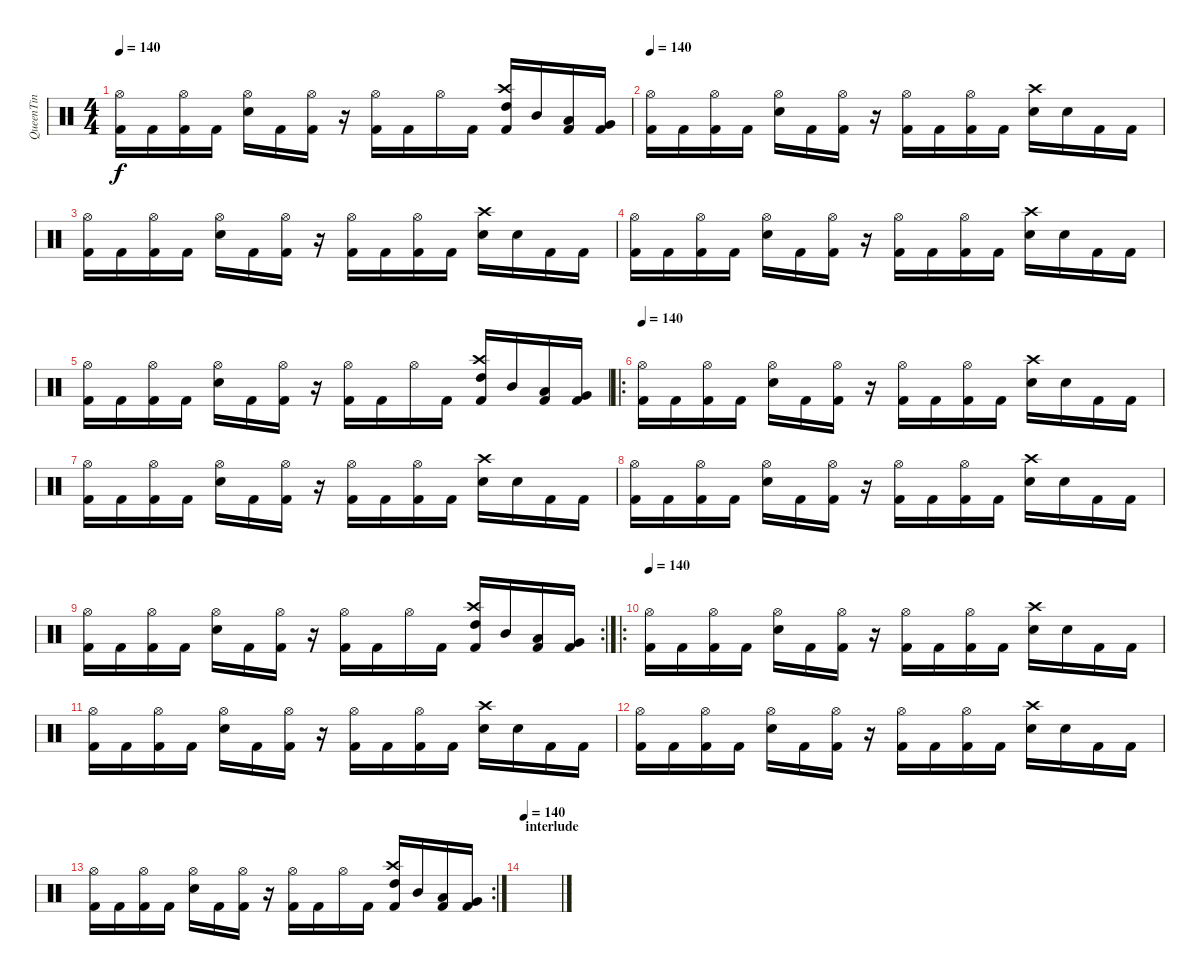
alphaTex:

\track ("QueenTin" "QueenTin") {instrument percussion}
\staff {score}
\articulation defaults
\ts (4 4)
\tempo 140
\clef neutral
\ks c
("Hi-Hat (open)" "Kick (hit) 2").16{dy f} "Kick (hit) 2".16 ("Hi-Hat (open)" "Kick (hit) 2").16 "Kick (hit) 2".16 ("Hi-Hat (open)" "Snare (hit) 2").16 "Kick (hit) 2".16 ("Hi-Hat (open)" "Kick (hit) 2").16 r.16 ("Hi-Hat (open)" "Kick (hit) 2").16 "Kick (hit) 2".16 "Hi-Hat (open)".16 "Kick (hit) 2".16 ("Crash high (hit)" "High Tom (hit)" "Kick (hit) 2").16 "Mid Tom (hit)".16 ("Low Tom (hit)" "Kick (hit) 2").16 ("Very Low Tom (hit)" "Kick (hit) 2").16 |
\tempo 140
("Hi-Hat (open)" "Kick (hit) 2").16 "Kick (hit) 2".16 ("Hi-Hat (open)" "Kick (hit) 2").16 "Kick (hit) 2".16 ("Hi-Hat (open)" "Snare (hit) 2").16 "Kick (hit) 2".16 ("Hi-Hat (open)" "Kick (hit) 2").16 r.16 ("Hi-Hat (open)" "Kick (hit) 2").16 "Kick (hit) 2".16 ("Hi-Hat (open)" "Kick (hit) 2").16 "Kick (hit) 2".16 ("Crash high (hit)" "Snare (hit) 2").16 "Snare (hit) 2".16 "Kick (hit) 2".16 "Kick (hit) 2".16 |
("Hi-Hat (open)" "Kick (hit) 2").16 "Kick (hit) 2".16 ("Hi-Hat (open)" "Kick (hit) 2").16 "Kick (hit) 2".16 ("Hi-Hat (open)" "Snare (hit) 2").16 "Kick (hit) 2".16 ("Hi-Hat (open)" "Kick (hit) 2").16 r.16 ("Hi-Hat (open)" "Kick (hit) 2").16 "Kick (hit) 2".16 ("Hi-Hat (open)" "Kick (hit) 2").16 "Kick (hit) 2".16 ("Crash high (hit)" "Snare (hit) 2").16 "Snare (hit) 2".16 "Kick (hit) 2".16 "Kick (hit) 2".16 |
("Hi-Hat (open)" "Kick (hit) 2").16 "Kick (hit) 2".16 ("Hi-Hat (open)" "Kick (hit) 2").16 "Kick (hit) 2".16 ("Hi-Hat (open)" "Snare (hit) 2").16 "Kick (hit) 2".16 ("Hi-Hat (open)" "Kick (hit) 2").16 r.16 ("Hi-Hat (open)" "Kick (hit) 2").16 "Kick (hit) 2".16 ("Hi-Hat (open)" "Kick (hit) 2").16 "Kick (hit) 2".16 ("Crash high (hit)" "Snare (hit) 2").16 "Snare (hit) 2".16 "Kick (hit) 2".16 "Kick (hit) 2".16 |
("Hi-Hat (open)" "Kick (hit) 2").16 "Kick (hit) 2".16 ("Hi-Hat (open)" "Kick (hit) 2").16 "Kick (hit) 2".16 ("Hi-Hat (open)" "Snare (hit) 2").16 "Kick (hit) 2".16 ("Hi-Hat (open)" "Kick (hit) 2").16 r.16 ("Hi-Hat (open)" "Kick (hit) 2").16 "Kick (hit) 2".16 "Hi-Hat (open)".16 "Kick (hit) 2".16 ("Crash high (hit)" "High Tom (hit)" "Kick (hit) 2").16 "Mid Tom (hit)".16 ("Low Tom (hit)" "Kick (hit) 2").16 ("Very Low Tom (hit)" "Kick (hit) 2").16 |
\ro
\tempo 140
("Hi-Hat (open)" "Kick (hit) 2").16 "Kick (hit) 2".16 ("Hi-Hat (open)" "Kick (hit) 2").16 "Kick (hit) 2".16 ("Hi-Hat (open)" "Snare (hit) 2").16 "Kick (hit) 2".16 ("Hi-Hat (open)" "Kick (hit) 2").16 r.16 ("Hi-Hat (open)" "Kick (hit) 2").16 "Kick (hit) 2".16 ("Hi-Hat (open)" "Kick (hit) 2").16 "Kick (hit) 2".16 ("Crash high (hit)" "Snare (hit) 2").16 "Snare (hit) 2".16 "Kick (hit) 2".16 "Kick (hit) 2".16 |
("Hi-Hat (open)" "Kick (hit) 2").16 "Kick (hit) 2".16 ("Hi-Hat (open)" "Kick (hit) 2").16 "Kick (hit) 2".16 ("Hi-Hat (open)" "Snare (hit) 2").16 "Kick (hit) 2".16 ("Hi-Hat (open)" "Kick (hit) 2").16 r.16 ("Hi-Hat (open)" "Kick (hit) 2").16 "Kick (hit) 2".16 ("Hi-Hat (open)" "Kick (hit) 2").16 "Kick (hit) 2".16 ("Crash high (hit)" "Snare (hit) 2").16 "Snare (hit) 2".16 "Kick (hit) 2".16 "Kick (hit) 2".16 |
("Hi-Hat (open)" "Kick (hit) 2").16 "Kick (hit) 2".16 ("Hi-Hat (open)" "Kick (hit) 2").16 "Kick (hit) 2".16 ("Hi-Hat (open)" "Snare (hit) 2").16 "Kick (hit) 2".16 ("Hi-Hat (open)" "Kick (hit) 2").16 r.16 ("Hi-Hat (open)" "Kick (hit) 2").16 "Kick (hit) 2".16 ("Hi-Hat (open)" "Kick (hit) 2").16 "Kick (hit) 2".16 ("Crash high (hit)" "Snare (hit) 2").16 "Snare (hit) 2".16 "Kick (hit) 2".16 "Kick (hit) 2".16 |
\rc 2
("Hi-Hat (open)" "Kick (hit) 2").16 "Kick (hit) 2".16 ("Hi-Hat (open)" "Kick (hit) 2").16 "Kick (hit) 2".16 ("Hi-Hat (open)" "Snare (hit) 2").16 "Kick (hit) 2".16 ("Hi-Hat (open)" "Kick (hit) 2").16 r.16 ("Hi-Hat (open)" "Kick (hit) 2").16 "Kick (hit) 2".16 "Hi-Hat (open)".16 "Kick (hit) 2".16 ("Crash high (hit)" "High Tom (hit)" "Kick (hit) 2").16 "Mid Tom (hit)".16 ("Low Tom (hit)" "Kick (hit) 2").16 ("Very Low Tom (hit)" "Kick (hit) 2").16 |
\ro
\tempo 140
("Hi-Hat (open)" "Kick (hit) 2").16 "Kick (hit) 2".16 ("Hi-Hat (open)" "Kick (hit) 2").16 "Kick (hit) 2".16 ("Hi-Hat (open)" "Snare (hit) 2").16 "Kick (hit) 2".16 ("Hi-Hat (open)" "Kick (hit) 2").16 r.16 ("Hi-Hat (open)" "Kick (hit) 2").16 "Kick (hit) 2".16 ("Hi-Hat (open)" "Kick (hit) 2").16 "Kick (hit) 2".16 ("Crash high (hit)" "Snare (hit) 2").16 "Snare (hit) 2".16 "Kick (hit) 2".16 "Kick (hit) 2".16 |
("Hi-Hat (open)" "Kick (hit) 2").16 "Kick (hit) 2".16 ("Hi-Hat (open)" "Kick (hit) 2").16 "Kick (hit) 2".16 ("Hi-Hat (open)" "Snare (hit) 2").16 "Kick (hit) 2".16 ("Hi-Hat (open)" "Kick (hit) 2").16 r.16 ("Hi-Hat (open)" "Kick (hit) 2").16 "Kick (hit) 2".16 ("Hi-Hat (open)" "Kick (hit) 2").16 "Kick (hit) 2".16 ("Crash high (hit)" "Snare (hit) 2").16 "Snare (hit) 2".16 "Kick (hit) 2".16 "Kick (hit) 2".16 |
("Hi-Hat (open)" "Kick (hit) 2").16 "Kick (hit) 2".16 ("Hi-Hat (open)" "Kick (hit) 2").16 "Kick (hit) 2".16 ("Hi-Hat (open)" "Snare (hit) 2").16 "Kick (hit) 2".16 ("Hi-Hat (open)" "Kick (hit) 2").16 r.16 ("Hi-Hat (open)" "Kick (hit) 2").16 "Kick (hit) 2".16 ("Hi-Hat (open)" "Kick (hit) 2").16 "Kick (hit) 2".16 ("Crash high (hit)" "Snare (hit) 2").16 "Snare (hit) 2".16 "Kick (hit) 2".16 "Kick (hit) 2".16 |
\rc 2
("Hi-Hat (open)" "Kick (hit) 2").16 "Kick (hit) 2".16 ("Hi-Hat (open)" "Kick (hit) 2").16 "Kick (hit) 2".16 ("Hi-Hat (open)" "Snare (hit) 2").16 "Kick (hit) 2".16 ("Hi-Hat (open)" "Kick (hit) 2").16 r.16 ("Hi-Hat (open)" "Kick (hit) 2").16 "Kick (hit) 2".16 "Hi-Hat (open)".16 "Kick (hit) 2".16 ("Crash high (hit)" "High Tom (hit)" "Kick (hit) 2").16 "Mid Tom (hit)".16 ("Low Tom (hit)" "Kick (hit) 2").16 ("Very Low Tom (hit)" "Kick (hit) 2").16 |
\section ("" "interlude")
\tempo 140
